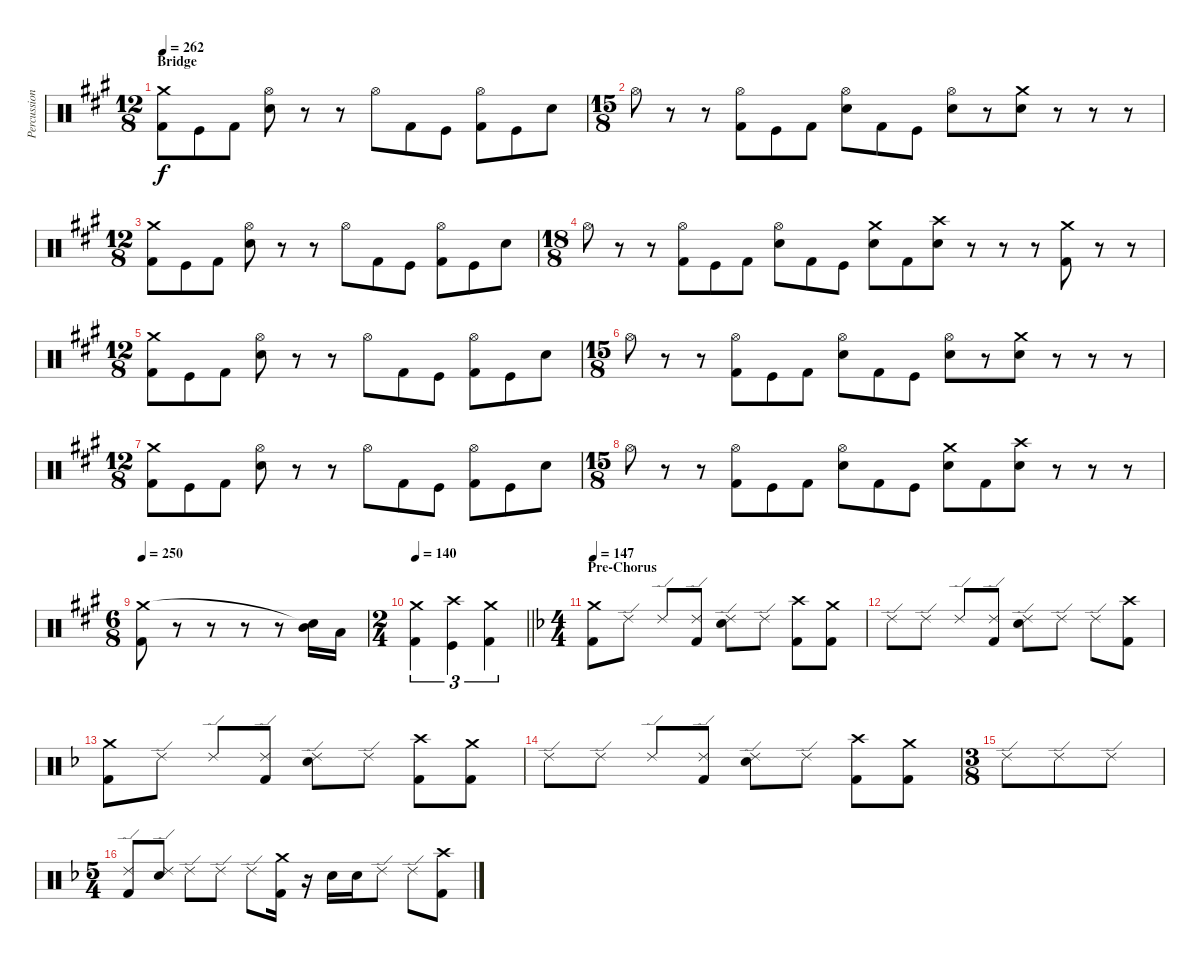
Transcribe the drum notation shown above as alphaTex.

\track ("Percussion" "Percussion") {instrument percussion}
\staff {score}
\articulation defaults
\ts (12 8)
\section ("" "Bridge")
\tempo 262
\clef neutral
\ks a
("Crash medium (hit)" "Kick (hit) 2").8{dy f} "Kick (hit)".8 "Kick (hit) 2".8 ("Hi-Hat (open)" "Electric Snare (hit)").8 r.8 r.8 "Hi-Hat (open)".8 "Kick (hit) 2".8 "Kick (hit)".8 ("Hi-Hat (open)" "Kick (hit) 2").8 "Kick (hit)".8 "Electric Snare (hit)".8 |
\ts (15 8)
"Hi-Hat (open)".8 r.8 r.8 ("Hi-Hat (open)" "Kick (hit) 2").8 "Kick (hit)".8 "Kick (hit) 2".8 ("Hi-Hat (open)" "Electric Snare (hit)").8 "Kick (hit) 2".8 "Kick (hit)".8 ("Hi-Hat (open)" "Electric Snare (hit)").8 r.8 ("Crash medium (hit)" "Electric Snare (hit)").8 r.8 r.8 r.8 |
\ts (12 8)
("Crash medium (hit)" "Kick (hit) 2").8 "Kick (hit)".8 "Kick (hit) 2".8 ("Hi-Hat (open)" "Electric Snare (hit)").8 r.8 r.8 "Hi-Hat (open)".8 "Kick (hit) 2".8 "Kick (hit)".8 ("Hi-Hat (open)" "Kick (hit) 2").8 "Kick (hit)".8 "Electric Snare (hit)".8 |
\ts (18 8)
"Hi-Hat (open)".8 r.8 r.8 ("Hi-Hat (open)" "Kick (hit) 2").8 "Kick (hit)".8 "Kick (hit) 2".8 ("Hi-Hat (open)" "Electric Snare (hit)").8 "Kick (hit) 2".8 "Kick (hit)".8 ("Crash medium (hit)" "Electric Snare (hit)").8 "Kick (hit) 2".8 ("Crash high (hit)" "Electric Snare (hit)").8 r.8 r.8 r.8 ("Crash medium (hit)" "Kick (hit) 2").8 r.8 r.8 |
\ts (12 8)
("Crash medium (hit)" "Kick (hit) 2").8 "Kick (hit)".8 "Kick (hit) 2".8 ("Hi-Hat (open)" "Electric Snare (hit)").8 r.8 r.8 "Hi-Hat (open)".8 "Kick (hit) 2".8 "Kick (hit)".8 ("Hi-Hat (open)" "Kick (hit) 2").8 "Kick (hit)".8 "Electric Snare (hit)".8 |
\ts (15 8)
"Hi-Hat (open)".8 r.8 r.8 ("Hi-Hat (open)" "Kick (hit) 2").8 "Kick (hit)".8 "Kick (hit) 2".8 ("Hi-Hat (open)" "Electric Snare (hit)").8 "Kick (hit) 2".8 "Kick (hit)".8 ("Hi-Hat (open)" "Electric Snare (hit)").8 r.8 ("Crash medium (hit)" "Electric Snare (hit)").8 r.8 r.8 r.8 |
\ts (12 8)
("Crash medium (hit)" "Kick (hit) 2").8 "Kick (hit)".8 "Kick (hit) 2".8 ("Hi-Hat (open)" "Electric Snare (hit)").8 r.8 r.8 "Hi-Hat (open)".8 "Kick (hit) 2".8 "Kick (hit)".8 ("Hi-Hat (open)" "Kick (hit) 2").8 "Kick (hit)".8 "Electric Snare (hit)".8 |
\ts (15 8)
"Hi-Hat (open)".8 r.8 r.8 ("Hi-Hat (open)" "Kick (hit) 2").8 "Kick (hit)".8 "Kick (hit) 2".8 ("Hi-Hat (open)" "Electric Snare (hit)").8 "Kick (hit) 2".8 "Kick (hit)".8 ("Crash medium (hit)" "Electric Snare (hit)").8 "Kick (hit) 2".8 ("Crash high (hit)" "Electric Snare (hit)").8 r.8 r.8 r.8 |
\ts (6 8)
\tempo 250
("Crash medium (hit)" "Kick (hit) 2").8 r.8 r.8 r.8 r.8 ("Snare (hit)"{t} "Mid Tom (hit)").16 "Low Tom (hit)".16 |
\ts (2 4)
\tempo 140
\barLineRight lightlight
("Crash medium (hit)" "Kick (hit) 2").4{tu (3 2)} ("Crash high (hit)" "Kick (hit)").4{tu (3 2)} ("Crash medium (hit)" "Kick (hit) 2").4{tu (3 2)} |
\ts (4 4)
\section ("" "Pre-Chorus")
\tempo 147
\ks f
("Crash medium (hit)" "Kick (hit) 2").8 "Ride (edge) 2".8 "Ride (edge) 2".8 ("Ride (edge) 2" "Kick (hit) 2").8 ("Ride (edge) 2" "Electric Snare (hit)").8 "Ride (edge) 2".8 ("Crash high (hit)" "Kick (hit) 2").8 ("Crash medium (hit)" "Kick (hit) 2").8 |
"Ride (edge) 2".8 "Ride (edge) 2".8 "Ride (edge) 2".8 ("Ride (edge) 2" "Kick (hit) 2").8 ("Ride (edge) 2" "Electric Snare (hit)").8 "Ride (edge) 2".8 "Ride (edge) 2".8 ("Crash high (hit)" "Kick (hit) 2").8 |
("Crash medium (hit)" "Kick (hit) 2").8 "Ride (edge) 2".8 "Ride (edge) 2".8 ("Ride (edge) 2" "Kick (hit) 2").8 ("Ride (edge) 2" "Electric Snare (hit)").8 "Ride (edge) 2".8 ("Crash high (hit)" "Kick (hit) 2").8 ("Crash medium (hit)" "Kick (hit) 2").8 |
"Ride (edge) 2".8 "Ride (edge) 2".8 "Ride (edge) 2".8 ("Ride (edge) 2" "Kick (hit) 2").8 ("Ride (edge) 2" "Electric Snare (hit)").8 "Ride (edge) 2".8 ("Crash high (hit)" "Kick (hit) 2").8 ("Crash medium (hit)" "Kick (hit) 2").8 |
\ts (3 8)
"Ride (edge) 2".8 "Ride (edge) 2".8 "Ride (edge) 2".8 |
\ts (5 4)
("Ride (edge) 2" "Kick (hit) 2").8 ("Ride (edge) 2" "Electric Snare (hit)").8 "Ride (edge) 2".8 "Ride (edge) 2".8 "Ride (edge) 2".8 ("Crash medium (hit)" "Kick (hit) 2").16 r.16 "Electric Snare (hit)".16 "Electric Snare (hit)".16 "Ride (edge) 2".8 "Ride (edge) 2".8 ("Crash high (hit)" "Kick (hit) 2").8
